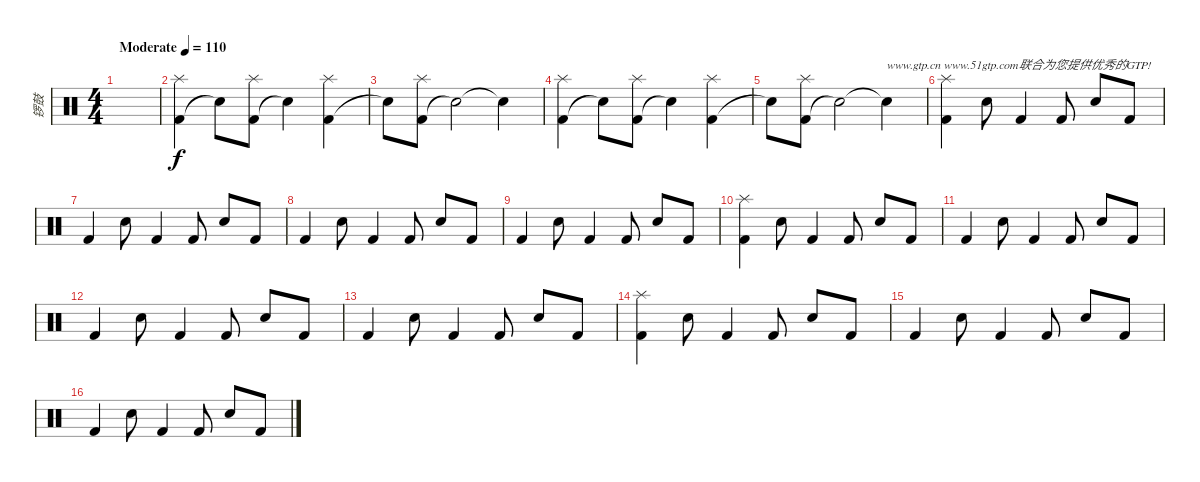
\track ("锣鼓" "锣鼓") {instrument percussion}
\staff {score}
\articulation defaults
\ts (4 4)
\tempo (110 "Moderate")
\clef neutral
\ks c
|
("Kick (hit) 2" "Splash (hit)").4 "Snare (hit)"{t}.8 ("Kick (hit) 2" "Splash (hit)").8 "Snare (hit)"{t}.4 ("Kick (hit) 2" "Splash (hit)").4 |
"Snare (hit)"{t}.8 ("Kick (hit) 2" "Splash (hit)").8 "Snare (hit)"{t}.2 "Snare (hit)"{t}.4 |
("Kick (hit) 2" "Splash (hit)").4 "Snare (hit)"{t}.8 ("Kick (hit) 2" "Splash (hit)").8 "Snare (hit)"{t}.4 ("Kick (hit) 2" "Splash (hit)").4 |
"Snare (hit)"{t}.8 ("Kick (hit) 2" "Splash (hit)").8 "Snare (hit)"{t}.2 "Snare (hit)"{t}.4{txt "www.gtp.cn www.51gtp.com联合为您提供优秀的GTP!"} |
("Kick (hit) 2" "Splash (hit)").4 "Snare (hit) 2".8 "Kick (hit) 2".4 "Kick (hit) 2".8 "Snare (hit) 2".8 "Kick (hit) 2".8 |
"Kick (hit) 2".4 "Snare (hit) 2".8 "Kick (hit) 2".4 "Kick (hit) 2".8 "Snare (hit) 2".8 "Kick (hit) 2".8 |
"Kick (hit) 2".4 "Snare (hit) 2".8 "Kick (hit) 2".4 "Kick (hit) 2".8 "Snare (hit) 2".8 "Kick (hit) 2".8 |
"Kick (hit) 2".4 "Snare (hit) 2".8 "Kick (hit) 2".4 "Kick (hit) 2".8 "Snare (hit) 2".8 "Kick (hit) 2".8 |
("Kick (hit) 2" "Splash (hit)").4 "Snare (hit) 2".8 "Kick (hit) 2".4 "Kick (hit) 2".8 "Snare (hit) 2".8 "Kick (hit) 2".8 |
"Kick (hit) 2".4 "Snare (hit) 2".8 "Kick (hit) 2".4 "Kick (hit) 2".8 "Snare (hit) 2".8 "Kick (hit) 2".8 |
"Kick (hit) 2".4 "Snare (hit) 2".8 "Kick (hit) 2".4 "Kick (hit) 2".8 "Snare (hit) 2".8 "Kick (hit) 2".8 |
"Kick (hit) 2".4 "Snare (hit) 2".8 "Kick (hit) 2".4 "Kick (hit) 2".8 "Snare (hit) 2".8 "Kick (hit) 2".8 |
("Kick (hit) 2" "Splash (hit)").4 "Snare (hit) 2".8 "Kick (hit) 2".4 "Kick (hit) 2".8 "Snare (hit) 2".8 "Kick (hit) 2".8 |
"Kick (hit) 2".4 "Snare (hit) 2".8 "Kick (hit) 2".4 "Kick (hit) 2".8 "Snare (hit) 2".8 "Kick (hit) 2".8 |
"Kick (hit) 2".4 "Snare (hit) 2".8 "Kick (hit) 2".4 "Kick (hit) 2".8 "Snare (hit) 2".8 "Kick (hit) 2".8
